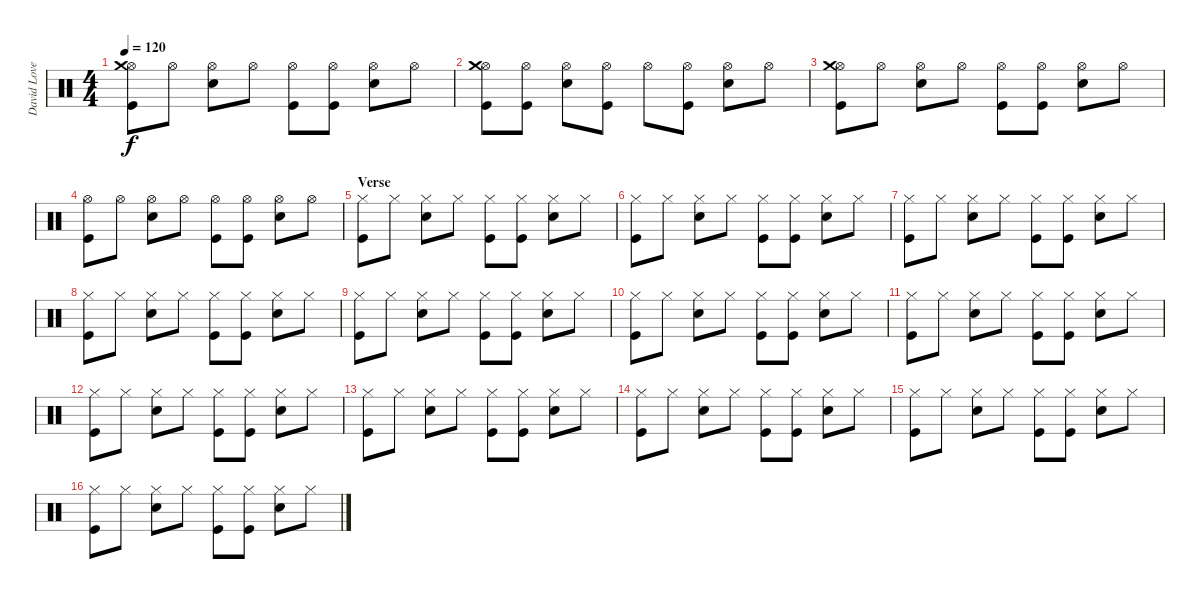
\track ("David Lovering" "David Love") {instrument percussion}
\staff {score}
\articulation defaults
\ts (4 4)
\tempo 120
\clef neutral
\ks c
("Hi-Hat (open)" "Crash medium (hit)" "Kick (hit)").8{dy f} "Hi-Hat (open)".8 ("Hi-Hat (open)" "Snare (hit) 2").8 "Hi-Hat (open)".8 ("Hi-Hat (open)" "Kick (hit)").8 ("Hi-Hat (open)" "Kick (hit)").8 ("Hi-Hat (open)" "Snare (hit) 2").8 "Hi-Hat (open)".8 |
("Hi-Hat (open)" "Crash medium (hit)" "Kick (hit)").8 ("Hi-Hat (open)" "Kick (hit)").8 ("Hi-Hat (open)" "Snare (hit) 2").8 ("Hi-Hat (open)" "Kick (hit)").8 "Hi-Hat (open)".8 ("Hi-Hat (open)" "Kick (hit)").8 ("Hi-Hat (open)" "Snare (hit) 2").8 "Hi-Hat (open)".8 |
("Hi-Hat (open)" "Crash medium (hit)" "Kick (hit)").8 "Hi-Hat (open)".8 ("Hi-Hat (open)" "Snare (hit) 2").8 "Hi-Hat (open)".8 ("Hi-Hat (open)" "Kick (hit)").8 ("Hi-Hat (open)" "Kick (hit)").8 ("Hi-Hat (open)" "Snare (hit) 2").8 "Hi-Hat (open)".8 |
("Hi-Hat (open)" "Kick (hit)").8 "Hi-Hat (open)".8 ("Hi-Hat (open)" "Snare (hit) 2").8 "Hi-Hat (open)".8 ("Hi-Hat (open)" "Kick (hit)").8 ("Hi-Hat (open)" "Kick (hit)").8 ("Hi-Hat (open)" "Snare (hit) 2").8 "Hi-Hat (open)".8 |
\section ("" "Verse")
("Hi-Hat (closed)" "Kick (hit)").8 "Hi-Hat (closed)".8 ("Hi-Hat (closed)" "Snare (hit) 2").8 "Hi-Hat (closed)".8 ("Hi-Hat (closed)" "Kick (hit)").8 ("Hi-Hat (closed)" "Kick (hit)").8 ("Hi-Hat (closed)" "Snare (hit) 2").8 "Hi-Hat (closed)".8 |
("Hi-Hat (closed)" "Kick (hit)").8 "Hi-Hat (closed)".8 ("Hi-Hat (closed)" "Snare (hit) 2").8 "Hi-Hat (closed)".8 ("Hi-Hat (closed)" "Kick (hit)").8 ("Hi-Hat (closed)" "Kick (hit)").8 ("Hi-Hat (closed)" "Snare (hit) 2").8 "Hi-Hat (closed)".8 |
("Hi-Hat (closed)" "Kick (hit)").8 "Hi-Hat (closed)".8 ("Hi-Hat (closed)" "Snare (hit) 2").8 "Hi-Hat (closed)".8 ("Hi-Hat (closed)" "Kick (hit)").8 ("Hi-Hat (closed)" "Kick (hit)").8 ("Hi-Hat (closed)" "Snare (hit) 2").8 "Hi-Hat (closed)".8 |
("Hi-Hat (closed)" "Kick (hit)").8 "Hi-Hat (closed)".8 ("Hi-Hat (closed)" "Snare (hit) 2").8 "Hi-Hat (closed)".8 ("Hi-Hat (closed)" "Kick (hit)").8 ("Hi-Hat (closed)" "Kick (hit)").8 ("Hi-Hat (closed)" "Snare (hit) 2").8 "Hi-Hat (closed)".8 |
("Hi-Hat (closed)" "Kick (hit)").8 "Hi-Hat (closed)".8 ("Hi-Hat (closed)" "Snare (hit) 2").8 "Hi-Hat (closed)".8 ("Hi-Hat (closed)" "Kick (hit)").8 ("Hi-Hat (closed)" "Kick (hit)").8 ("Hi-Hat (closed)" "Snare (hit) 2").8 "Hi-Hat (closed)".8 |
("Hi-Hat (closed)" "Kick (hit)").8 "Hi-Hat (closed)".8 ("Hi-Hat (closed)" "Snare (hit) 2").8 "Hi-Hat (closed)".8 ("Hi-Hat (closed)" "Kick (hit)").8 ("Hi-Hat (closed)" "Kick (hit)").8 ("Hi-Hat (closed)" "Snare (hit) 2").8 "Hi-Hat (closed)".8 |
("Hi-Hat (closed)" "Kick (hit)").8 "Hi-Hat (closed)".8 ("Hi-Hat (closed)" "Snare (hit) 2").8 "Hi-Hat (closed)".8 ("Hi-Hat (closed)" "Kick (hit)").8 ("Hi-Hat (closed)" "Kick (hit)").8 ("Hi-Hat (closed)" "Snare (hit) 2").8 "Hi-Hat (closed)".8 |
("Hi-Hat (closed)" "Kick (hit)").8 "Hi-Hat (closed)".8 ("Hi-Hat (closed)" "Snare (hit) 2").8 "Hi-Hat (closed)".8 ("Hi-Hat (closed)" "Kick (hit)").8 ("Hi-Hat (closed)" "Kick (hit)").8 ("Hi-Hat (closed)" "Snare (hit) 2").8 "Hi-Hat (closed)".8 |
("Hi-Hat (closed)" "Kick (hit)").8 "Hi-Hat (closed)".8 ("Hi-Hat (closed)" "Snare (hit) 2").8 "Hi-Hat (closed)".8 ("Hi-Hat (closed)" "Kick (hit)").8 ("Hi-Hat (closed)" "Kick (hit)").8 ("Hi-Hat (closed)" "Snare (hit) 2").8 "Hi-Hat (closed)".8 |
("Hi-Hat (closed)" "Kick (hit)").8 "Hi-Hat (closed)".8 ("Hi-Hat (closed)" "Snare (hit) 2").8 "Hi-Hat (closed)".8 ("Hi-Hat (closed)" "Kick (hit)").8 ("Hi-Hat (closed)" "Kick (hit)").8 ("Hi-Hat (closed)" "Snare (hit) 2").8 "Hi-Hat (closed)".8 |
("Hi-Hat (closed)" "Kick (hit)").8 "Hi-Hat (closed)".8 ("Hi-Hat (closed)" "Snare (hit) 2").8 "Hi-Hat (closed)".8 ("Hi-Hat (closed)" "Kick (hit)").8 ("Hi-Hat (closed)" "Kick (hit)").8 ("Hi-Hat (closed)" "Snare (hit) 2").8 "Hi-Hat (closed)".8 |
("Hi-Hat (closed)" "Kick (hit)").8 "Hi-Hat (closed)".8 ("Hi-Hat (closed)" "Snare (hit) 2").8 "Hi-Hat (closed)".8 ("Hi-Hat (closed)" "Kick (hit)").8 ("Hi-Hat (closed)" "Kick (hit)").8 ("Hi-Hat (closed)" "Snare (hit) 2").8 "Hi-Hat (closed)".8
